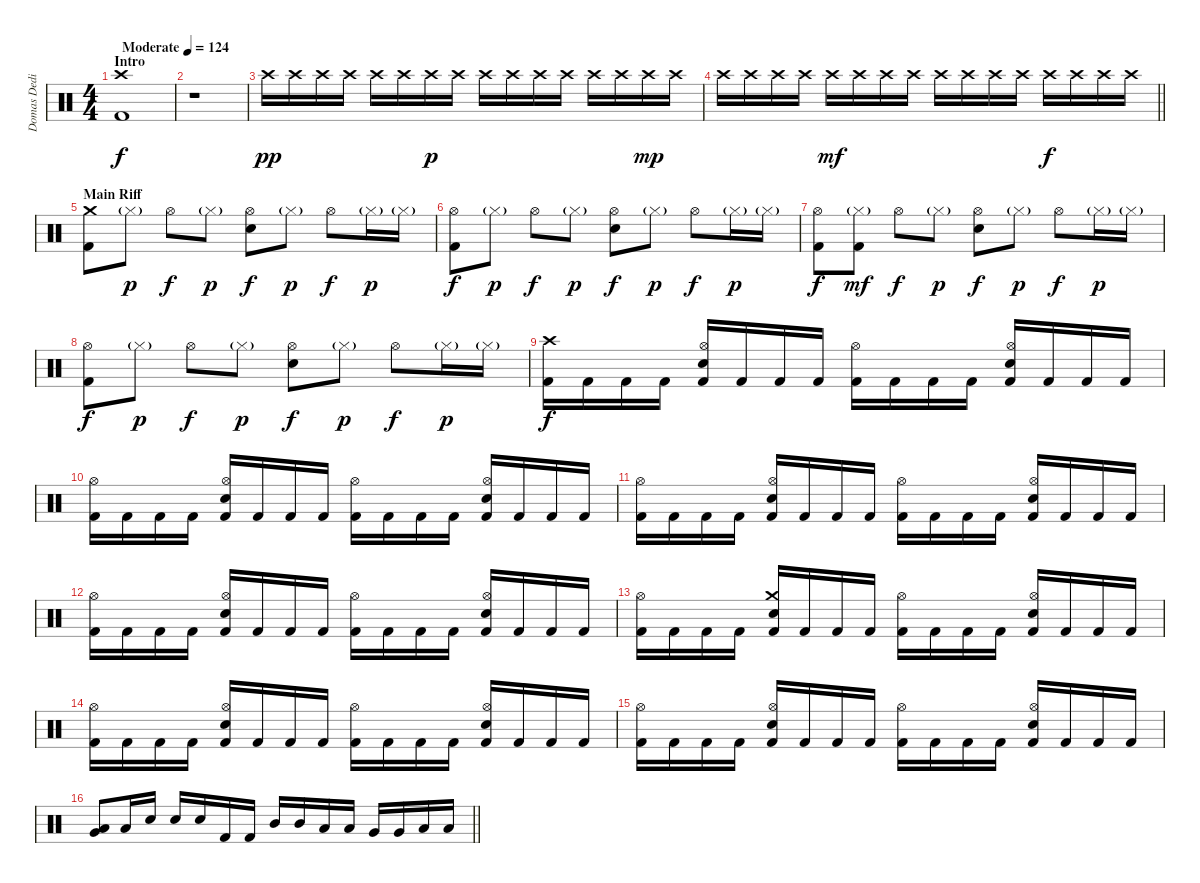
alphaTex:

\track ("Domas Dedinas" "Domas Dedi") {instrument percussion}
\staff {score}
\articulation defaults
\ts (4 4)
\section ("" "Intro")
\tempo (124 "Moderate")
\clef neutral
\ks c
("Crash high (hit)" "Kick (hit) 2").1{dy f} |
r.1 |
"Crash high (hit)".16{dy pp} "Crash high (hit)".16 "Crash high (hit)".16 "Crash high (hit)".16 "Crash high (hit)".16 "Crash high (hit)".16 "Crash high (hit)".16{dy p} "Crash high (hit)".16 "Crash high (hit)".16 "Crash high (hit)".16 "Crash high (hit)".16 "Crash high (hit)".16 "Crash high (hit)".16 "Crash high (hit)".16 "Crash high (hit)".16{dy mp} "Crash high (hit)".16 |
\barLineRight lightlight "Crash high (hit)".16 "Crash high (hit)".16 "Crash high (hit)".16 "Crash high (hit)".16 "Crash high (hit)".16{dy mf} "Crash high (hit)".16 "Crash high (hit)".16 "Crash high (hit)".16 "Crash high (hit)".16 "Crash high (hit)".16 "Crash high (hit)".16 "Crash high (hit)".16 "Crash high (hit)".16{dy f} "Crash high (hit)".16 "Crash high (hit)".16 "Crash high (hit)".16
|
\section ("" "Main Riff")
("Crash medium (hit)" "Kick (hit) 2").8 "Hi-Hat (closed)"{g}.8{dy p} "Hi-Hat (open)".8{dy f} "Hi-Hat (closed)"{g}.8{dy p} ("Hi-Hat (open)" "Snare (hit) 2").8{dy f} "Hi-Hat (closed)"{g}.8{dy p} "Hi-Hat (open)".8{dy f} "Hi-Hat (closed)"{g}.16{dy p} "Hi-Hat (closed)"{g}.16 |
("Hi-Hat (open)" "Kick (hit) 2").8{dy f} "Hi-Hat (closed)"{g}.8{dy p} "Hi-Hat (open)".8{dy f} "Hi-Hat (closed)"{g}.8{dy p} ("Hi-Hat (open)" "Snare (hit) 2").8{dy f} "Hi-Hat (closed)"{g}.8{dy p} "Hi-Hat (open)".8{dy f} "Hi-Hat (closed)"{g}.16{dy p} "Hi-Hat (closed)"{g}.16 |
("Hi-Hat (open)" "Kick (hit) 2").8{dy f} ("Hi-Hat (closed)"{g} "Kick (hit) 2").8{dy mf} "Hi-Hat (open)".8{dy f} "Hi-Hat (closed)"{g}.8{dy p} ("Hi-Hat (open)" "Snare (hit) 2").8{dy f} "Hi-Hat (closed)"{g}.8{dy p} "Hi-Hat (open)".8{dy f} "Hi-Hat (closed)"{g}.16{dy p} "Hi-Hat (closed)"{g}.16 |
("Hi-Hat (open)" "Kick (hit) 2").8{dy f} "Hi-Hat (closed)"{g}.8{dy p} "Hi-Hat (open)".8{dy f} "Hi-Hat (closed)"{g}.8{dy p} ("Hi-Hat (open)" "Snare (hit) 2").8{dy f} "Hi-Hat (closed)"{g}.8{dy p} "Hi-Hat (open)".8{dy f} "Hi-Hat (closed)"{g}.16{dy p} "Hi-Hat (closed)"{g}.16 |
("Crash high (hit)" "Kick (hit) 2").16{dy f} "Kick (hit) 2".16 "Kick (hit) 2".16 "Kick (hit) 2".16 ("Hi-Hat (open)" "Snare (hit) 2" "Kick (hit) 2").16 "Kick (hit) 2".16 "Kick (hit) 2".16 "Kick (hit) 2".16 ("Hi-Hat (open)" "Kick (hit) 2").16 "Kick (hit) 2".16 "Kick (hit) 2".16 "Kick (hit) 2".16 ("Hi-Hat (open)" "Snare (hit) 2" "Kick (hit) 2").16 "Kick (hit) 2".16 "Kick (hit) 2".16 "Kick (hit) 2".16 |
("Hi-Hat (open)" "Kick (hit) 2").16 "Kick (hit) 2".16 "Kick (hit) 2".16 "Kick (hit) 2".16 ("Hi-Hat (open)" "Snare (hit) 2" "Kick (hit) 2").16 "Kick (hit) 2".16 "Kick (hit) 2".16 "Kick (hit) 2".16 ("Hi-Hat (open)" "Kick (hit) 2").16 "Kick (hit) 2".16 "Kick (hit) 2".16 "Kick (hit) 2".16 ("Hi-Hat (open)" "Snare (hit) 2" "Kick (hit) 2").16 "Kick (hit) 2".16 "Kick (hit) 2".16 "Kick (hit) 2".16 |
("Hi-Hat (open)" "Kick (hit) 2").16 "Kick (hit) 2".16 "Kick (hit) 2".16 "Kick (hit) 2".16 ("Hi-Hat (open)" "Snare (hit) 2" "Kick (hit) 2").16 "Kick (hit) 2".16 "Kick (hit) 2".16 "Kick (hit) 2".16 ("Hi-Hat (open)" "Kick (hit) 2").16 "Kick (hit) 2".16 "Kick (hit) 2".16 "Kick (hit) 2".16 ("Hi-Hat (open)" "Snare (hit) 2" "Kick (hit) 2").16 "Kick (hit) 2".16 "Kick (hit) 2".16 "Kick (hit) 2".16 |
("Hi-Hat (open)" "Kick (hit) 2").16 "Kick (hit) 2".16 "Kick (hit) 2".16 "Kick (hit) 2".16 ("Hi-Hat (open)" "Snare (hit) 2" "Kick (hit) 2").16 "Kick (hit) 2".16 "Kick (hit) 2".16 "Kick (hit) 2".16 ("Hi-Hat (open)" "Kick (hit) 2").16 "Kick (hit) 2".16 "Kick (hit) 2".16 "Kick (hit) 2".16 ("Hi-Hat (open)" "Snare (hit) 2" "Kick (hit) 2").16 "Kick (hit) 2".16 "Kick (hit) 2".16 "Kick (hit) 2".16 |
("Hi-Hat (open)" "Kick (hit) 2").16 "Kick (hit) 2".16 "Kick (hit) 2".16 "Kick (hit) 2".16 ("Crash medium (hit)" "Snare (hit) 2" "Kick (hit) 2").16 "Kick (hit) 2".16 "Kick (hit) 2".16 "Kick (hit) 2".16 ("Hi-Hat (open)" "Kick (hit) 2").16 "Kick (hit) 2".16 "Kick (hit) 2".16 "Kick (hit) 2".16 ("Hi-Hat (open)" "Snare (hit) 2" "Kick (hit) 2").16 "Kick (hit) 2".16 "Kick (hit) 2".16 "Kick (hit) 2".16 |
("Hi-Hat (open)" "Kick (hit) 2").16 "Kick (hit) 2".16 "Kick (hit) 2".16 "Kick (hit) 2".16 ("Hi-Hat (open)" "Snare (hit) 2" "Kick (hit) 2").16 "Kick (hit) 2".16 "Kick (hit) 2".16 "Kick (hit) 2".16 ("Hi-Hat (open)" "Kick (hit) 2").16 "Kick (hit) 2".16 "Kick (hit) 2".16 "Kick (hit) 2".16 ("Hi-Hat (open)" "Snare (hit) 2" "Kick (hit) 2").16 "Kick (hit) 2".16 "Kick (hit) 2".16 "Kick (hit) 2".16 |
("Hi-Hat (open)" "Kick (hit) 2").16 "Kick (hit) 2".16 "Kick (hit) 2".16 "Kick (hit) 2".16 ("Hi-Hat (open)" "Snare (hit) 2" "Kick (hit) 2").16 "Kick (hit) 2".16 "Kick (hit) 2".16 "Kick (hit) 2".16 ("Hi-Hat (open)" "Kick (hit) 2").16 "Kick (hit) 2".16 "Kick (hit) 2".16 "Kick (hit) 2".16 ("Hi-Hat (open)" "Snare (hit) 2" "Kick (hit) 2").16 "Kick (hit) 2".16 "Kick (hit) 2".16 "Kick (hit) 2".16 |
\barLineRight lightlight
("Low Tom (hit)" "Very Low Tom (hit)").8 "Low Floor Tom (hit)".16 "Snare (hit) 2".16 "Snare (hit) 2".16 "Snare (hit) 2".16 "Kick (hit) 2".16 "Kick (hit) 2".16 "Mid Tom (hit)".16 "Mid Tom (hit)".16 "Low Tom (hit)".16 "Low Tom (hit)".16 "Very Low Tom (hit)".16 "Very Low Tom (hit)".16 "Low Floor Tom (hit)".16 "Low Floor Tom (hit)".16
